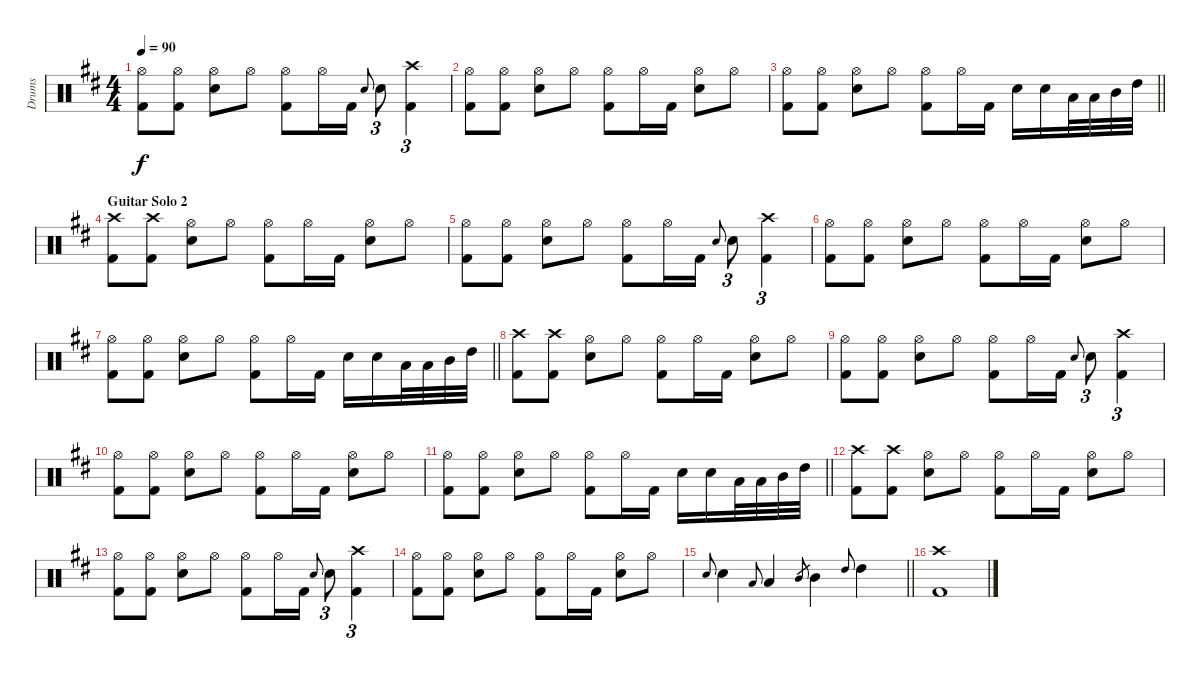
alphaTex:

\track ("Drums" "Drums") {instrument percussion}
\staff {score}
\articulation defaults
\ts (4 4)
\tempo 90
\clef neutral
\ks bminor
("Hi-Hat (open)" "Kick (hit) 2").8{dy f} ("Hi-Hat (open)" "Kick (hit) 2").8 ("Hi-Hat (open)" "Snare (hit) 2").8 "Hi-Hat (open)".8 ("Hi-Hat (open)" "Kick (hit) 2").8 "Hi-Hat (open)".16 "Kick (hit) 2".16 "Snare (hit) 2".8{gr onbeat} "Snare (hit) 2".8{tu (3 2)} ("Crash high (hit)" "Kick (hit) 2").4{tu (3 2)} |
("Hi-Hat (open)" "Kick (hit) 2").8 ("Hi-Hat (open)" "Kick (hit) 2").8 ("Hi-Hat (open)" "Snare (hit) 2").8 "Hi-Hat (open)".8 ("Hi-Hat (open)" "Kick (hit) 2").8 "Hi-Hat (open)".16 "Kick (hit) 2".16 ("Hi-Hat (open)" "Snare (hit) 2").8 "Hi-Hat (open)".8 |
\barLineRight lightlight
("Hi-Hat (open)" "Kick (hit) 2").8 ("Hi-Hat (open)" "Kick (hit) 2").8 ("Hi-Hat (open)" "Snare (hit) 2").8 "Hi-Hat (open)".8 ("Hi-Hat (open)" "Kick (hit) 2").8 "Hi-Hat (open)".16 "Kick (hit) 2".16 "Snare (hit) 2".16 "Snare (hit) 2".16 "Low Tom (hit)".32 "Low Tom (hit)".32 "Mid Tom (hit)".32 "High Tom (hit)".32 |
\section ("" "Guitar Solo 2")
("Crash high (hit)" "Kick (hit) 2").8 ("Crash high (hit)" "Kick (hit) 2").8 ("Hi-Hat (open)" "Snare (hit) 2").8 "Hi-Hat (open)".8 ("Hi-Hat (open)" "Kick (hit) 2").8 "Hi-Hat (open)".16 "Kick (hit) 2".16 ("Hi-Hat (open)" "Snare (hit) 2").8 "Hi-Hat (open)".8 |
("Hi-Hat (open)" "Kick (hit) 2").8 ("Hi-Hat (open)" "Kick (hit) 2").8 ("Hi-Hat (open)" "Snare (hit) 2").8 "Hi-Hat (open)".8 ("Hi-Hat (open)" "Kick (hit) 2").8 "Hi-Hat (open)".16 "Kick (hit) 2".16 "Snare (hit) 2".8{gr onbeat} "Snare (hit) 2".8{tu (3 2)} ("Crash high (hit)" "Kick (hit) 2").4{tu (3 2)} |
("Hi-Hat (open)" "Kick (hit) 2").8 ("Hi-Hat (open)" "Kick (hit) 2").8 ("Hi-Hat (open)" "Snare (hit) 2").8 "Hi-Hat (open)".8 ("Hi-Hat (open)" "Kick (hit) 2").8 "Hi-Hat (open)".16 "Kick (hit) 2".16 ("Hi-Hat (open)" "Snare (hit) 2").8 "Hi-Hat (open)".8 |
\barLineRight lightlight
("Hi-Hat (open)" "Kick (hit) 2").8 ("Hi-Hat (open)" "Kick (hit) 2").8 ("Hi-Hat (open)" "Snare (hit) 2").8 "Hi-Hat (open)".8 ("Hi-Hat (open)" "Kick (hit) 2").8 "Hi-Hat (open)".16 "Kick (hit) 2".16 "Snare (hit) 2".16 "Snare (hit) 2".16 "Low Tom (hit)".32 "Low Tom (hit)".32 "Mid Tom (hit)".32 "High Tom (hit)".32 |
("Crash high (hit)" "Kick (hit) 2").8 ("Crash high (hit)" "Kick (hit) 2").8 ("Hi-Hat (open)" "Snare (hit) 2").8 "Hi-Hat (open)".8 ("Hi-Hat (open)" "Kick (hit) 2").8 "Hi-Hat (open)".16 "Kick (hit) 2".16 ("Hi-Hat (open)" "Snare (hit) 2").8 "Hi-Hat (open)".8 |
("Hi-Hat (open)" "Kick (hit) 2").8 ("Hi-Hat (open)" "Kick (hit) 2").8 ("Hi-Hat (open)" "Snare (hit) 2").8 "Hi-Hat (open)".8 ("Hi-Hat (open)" "Kick (hit) 2").8 "Hi-Hat (open)".16 "Kick (hit) 2".16 "Snare (hit) 2".8{gr onbeat} "Snare (hit) 2".8{tu (3 2)} ("Crash high (hit)" "Kick (hit) 2").4{tu (3 2)} |
("Hi-Hat (open)" "Kick (hit) 2").8 ("Hi-Hat (open)" "Kick (hit) 2").8 ("Hi-Hat (open)" "Snare (hit) 2").8 "Hi-Hat (open)".8 ("Hi-Hat (open)" "Kick (hit) 2").8 "Hi-Hat (open)".16 "Kick (hit) 2".16 ("Hi-Hat (open)" "Snare (hit) 2").8 "Hi-Hat (open)".8 |
\barLineRight lightlight
("Hi-Hat (open)" "Kick (hit) 2").8 ("Hi-Hat (open)" "Kick (hit) 2").8 ("Hi-Hat (open)" "Snare (hit) 2").8 "Hi-Hat (open)".8 ("Hi-Hat (open)" "Kick (hit) 2").8 "Hi-Hat (open)".16 "Kick (hit) 2".16 "Snare (hit) 2".16 "Snare (hit) 2".16 "Low Tom (hit)".32 "Low Tom (hit)".32 "Mid Tom (hit)".32 "High Tom (hit)".32 |
("Crash high (hit)" "Kick (hit) 2").8 ("Crash high (hit)" "Kick (hit) 2").8 ("Hi-Hat (open)" "Snare (hit) 2").8 "Hi-Hat (open)".8 ("Hi-Hat (open)" "Kick (hit) 2").8 "Hi-Hat (open)".16 "Kick (hit) 2".16 ("Hi-Hat (open)" "Snare (hit) 2").8 "Hi-Hat (open)".8 |
("Hi-Hat (open)" "Kick (hit) 2").8 ("Hi-Hat (open)" "Kick (hit) 2").8 ("Hi-Hat (open)" "Snare (hit) 2").8 "Hi-Hat (open)".8 ("Hi-Hat (open)" "Kick (hit) 2").8 "Hi-Hat (open)".16 "Kick (hit) 2".16 "Snare (hit) 2".8{gr onbeat} "Snare (hit) 2".8{tu (3 2)} ("Crash high (hit)" "Kick (hit) 2").4{tu (3 2)} |
("Hi-Hat (open)" "Kick (hit) 2").8 ("Hi-Hat (open)" "Kick (hit) 2").8 ("Hi-Hat (open)" "Snare (hit) 2").8 "Hi-Hat (open)".8 ("Hi-Hat (open)" "Kick (hit) 2").8 "Hi-Hat (open)".16 "Kick (hit) 2".16 ("Hi-Hat (open)" "Snare (hit) 2").8 "Hi-Hat (open)".8 |
\barLineRight lightlight "Snare (hit) 2".8{gr onbeat} "Snare (hit) 2".4 "Low Tom (hit)".8{gr onbeat} "Low Tom (hit)".4 "Mid Tom (hit)".8{gr} "Mid Tom (hit)".4 "High Tom (hit)".8{gr onbeat} "High Tom (hit)".4
|
("Crash high (hit)" "Kick (hit) 2").1
